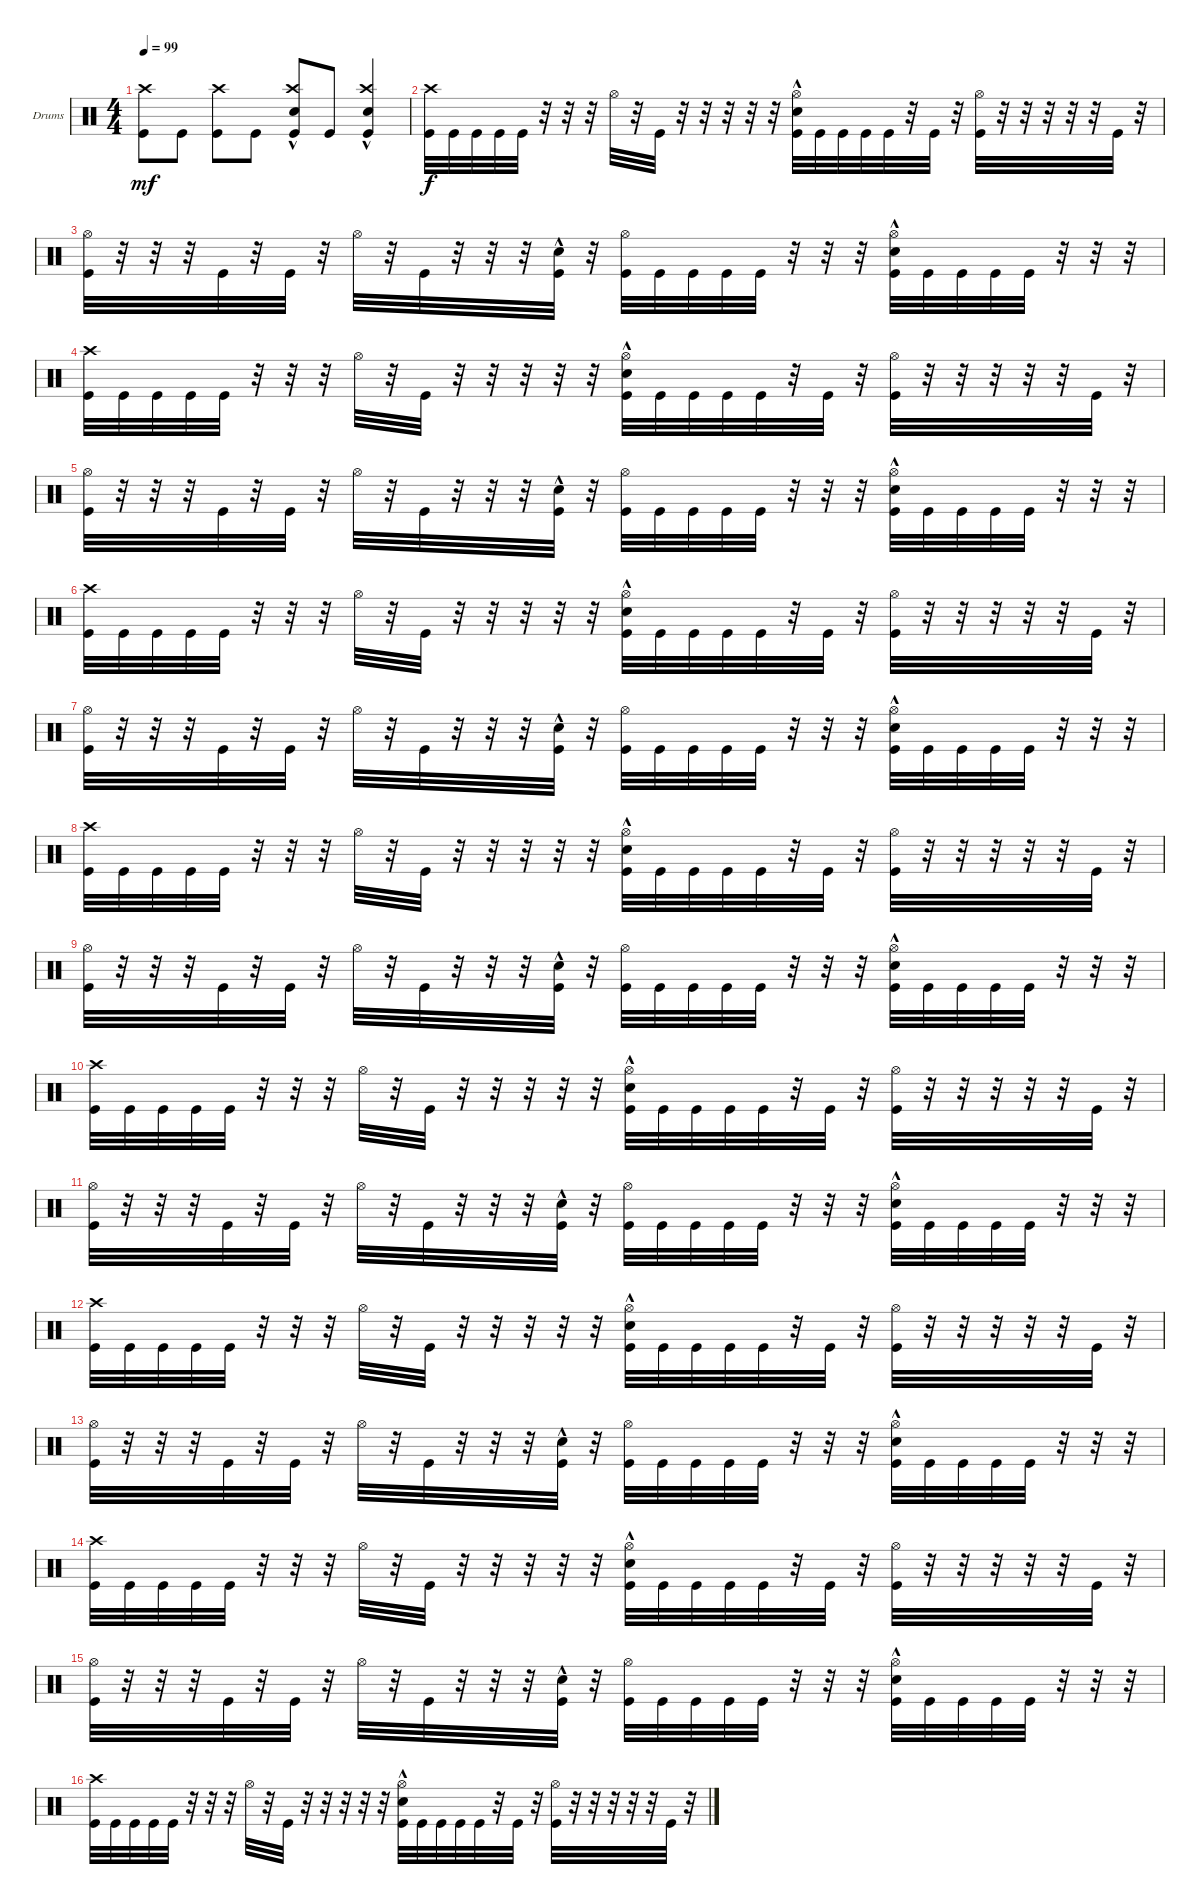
\defaultSystemsLayout 4
\bracketExtendMode groupsimilarinstruments
\firstSystemTrackNameOrientation horizontal
\otherSystemsTrackNameOrientation horizontal
\track ("Drumkit" "Drums") {instrument percussion}
\staff {score}
\articulation defaults
\ts (4 4)
\tempo 99
\clef neutral
\ks c
("Kick (hit)" "Crash high (hit)").8{dy mf} "Kick (hit)".8 ("Kick (hit)" "Crash high (hit)").8 "Kick (hit)".8 ("Kick (hit)" "Crash high (hit)" "Snare (hit) 2"{hac}).8 "Kick (hit)".8 ("Kick (hit)" "Crash high (hit)" "Snare (hit) 2"{hac}).4 |
("Kick (hit)" "Crash high (hit)").32{dy f} "Kick (hit)".32 "Kick (hit)".32 "Kick (hit)".32 "Kick (hit)".32 r.32 r.32 r.32 "Hi-Hat (open)".32 r.32 "Kick (hit)".32 r.32 r.32 r.32 r.32 r.32 ("Kick (hit)" "Hi-Hat (open)" "Snare (hit) 2"{hac}).32 "Kick (hit)".32 "Kick (hit)".32 "Kick (hit)".32 "Kick (hit)".32 r.32 "Kick (hit)".32 r.32 ("Kick (hit)" "Hi-Hat (open)").32 r.32 r.32 r.32 r.32 r.32 "Kick (hit)".32 r.32 |
("Kick (hit)" "Hi-Hat (open)").32 r.32 r.32 r.32 "Kick (hit)".32 r.32 "Kick (hit)".32 r.32 "Hi-Hat (open)".32 r.32 "Kick (hit)".32 r.32 r.32 r.32 ("Kick (hit)" "Snare (hit) 2"{hac}).32 r.32 ("Kick (hit)" "Hi-Hat (open)").32 "Kick (hit)".32 "Kick (hit)".32 "Kick (hit)".32 "Kick (hit)".32 r.32 r.32 r.32 ("Kick (hit)" "Hi-Hat (open)" "Snare (hit) 2"{hac}).32 "Kick (hit)".32 "Kick (hit)".32 "Kick (hit)".32 "Kick (hit)".32 r.32 r.32 r.32 |
("Kick (hit)" "Crash high (hit)").32 "Kick (hit)".32 "Kick (hit)".32 "Kick (hit)".32 "Kick (hit)".32 r.32 r.32 r.32 "Hi-Hat (open)".32 r.32 "Kick (hit)".32 r.32 r.32 r.32 r.32 r.32 ("Kick (hit)" "Hi-Hat (open)" "Snare (hit) 2"{hac}).32 "Kick (hit)".32 "Kick (hit)".32 "Kick (hit)".32 "Kick (hit)".32 r.32 "Kick (hit)".32 r.32 ("Kick (hit)" "Hi-Hat (open)").32 r.32 r.32 r.32 r.32 r.32 "Kick (hit)".32 r.32 |
("Kick (hit)" "Hi-Hat (open)").32 r.32 r.32 r.32 "Kick (hit)".32 r.32 "Kick (hit)".32 r.32 "Hi-Hat (open)".32 r.32 "Kick (hit)".32 r.32 r.32 r.32 ("Kick (hit)" "Snare (hit) 2"{hac}).32 r.32 ("Kick (hit)" "Hi-Hat (open)").32 "Kick (hit)".32 "Kick (hit)".32 "Kick (hit)".32 "Kick (hit)".32 r.32 r.32 r.32 ("Kick (hit)" "Hi-Hat (open)" "Snare (hit) 2"{hac}).32 "Kick (hit)".32 "Kick (hit)".32 "Kick (hit)".32 "Kick (hit)".32 r.32 r.32 r.32 |
("Kick (hit)" "Crash high (hit)").32 "Kick (hit)".32 "Kick (hit)".32 "Kick (hit)".32 "Kick (hit)".32 r.32 r.32 r.32 "Hi-Hat (open)".32 r.32 "Kick (hit)".32 r.32 r.32 r.32 r.32 r.32 ("Kick (hit)" "Hi-Hat (open)" "Snare (hit) 2"{hac}).32 "Kick (hit)".32 "Kick (hit)".32 "Kick (hit)".32 "Kick (hit)".32 r.32 "Kick (hit)".32 r.32 ("Kick (hit)" "Hi-Hat (open)").32 r.32 r.32 r.32 r.32 r.32 "Kick (hit)".32 r.32 |
("Kick (hit)" "Hi-Hat (open)").32 r.32 r.32 r.32 "Kick (hit)".32 r.32 "Kick (hit)".32 r.32 "Hi-Hat (open)".32 r.32 "Kick (hit)".32 r.32 r.32 r.32 ("Kick (hit)" "Snare (hit) 2"{hac}).32 r.32 ("Kick (hit)" "Hi-Hat (open)").32 "Kick (hit)".32 "Kick (hit)".32 "Kick (hit)".32 "Kick (hit)".32 r.32 r.32 r.32 ("Kick (hit)" "Hi-Hat (open)" "Snare (hit) 2"{hac}).32 "Kick (hit)".32 "Kick (hit)".32 "Kick (hit)".32 "Kick (hit)".32 r.32 r.32 r.32 |
("Kick (hit)" "Crash high (hit)").32 "Kick (hit)".32 "Kick (hit)".32 "Kick (hit)".32 "Kick (hit)".32 r.32 r.32 r.32 "Hi-Hat (open)".32 r.32 "Kick (hit)".32 r.32 r.32 r.32 r.32 r.32 ("Kick (hit)" "Hi-Hat (open)" "Snare (hit) 2"{hac}).32 "Kick (hit)".32 "Kick (hit)".32 "Kick (hit)".32 "Kick (hit)".32 r.32 "Kick (hit)".32 r.32 ("Kick (hit)" "Hi-Hat (open)").32 r.32 r.32 r.32 r.32 r.32 "Kick (hit)".32 r.32 |
("Kick (hit)" "Hi-Hat (open)").32 r.32 r.32 r.32 "Kick (hit)".32 r.32 "Kick (hit)".32 r.32 "Hi-Hat (open)".32 r.32 "Kick (hit)".32 r.32 r.32 r.32 ("Kick (hit)" "Snare (hit) 2"{hac}).32 r.32 ("Kick (hit)" "Hi-Hat (open)").32 "Kick (hit)".32 "Kick (hit)".32 "Kick (hit)".32 "Kick (hit)".32 r.32 r.32 r.32 ("Kick (hit)" "Hi-Hat (open)" "Snare (hit) 2"{hac}).32 "Kick (hit)".32 "Kick (hit)".32 "Kick (hit)".32 "Kick (hit)".32 r.32 r.32 r.32 |
("Kick (hit)" "Crash high (hit)").32 "Kick (hit)".32 "Kick (hit)".32 "Kick (hit)".32 "Kick (hit)".32 r.32 r.32 r.32 "Hi-Hat (open)".32 r.32 "Kick (hit)".32 r.32 r.32 r.32 r.32 r.32 ("Kick (hit)" "Hi-Hat (open)" "Snare (hit) 2"{hac}).32 "Kick (hit)".32 "Kick (hit)".32 "Kick (hit)".32 "Kick (hit)".32 r.32 "Kick (hit)".32 r.32 ("Kick (hit)" "Hi-Hat (open)").32 r.32 r.32 r.32 r.32 r.32 "Kick (hit)".32 r.32 |
("Kick (hit)" "Hi-Hat (open)").32 r.32 r.32 r.32 "Kick (hit)".32 r.32 "Kick (hit)".32 r.32 "Hi-Hat (open)".32 r.32 "Kick (hit)".32 r.32 r.32 r.32 ("Kick (hit)" "Snare (hit) 2"{hac}).32 r.32 ("Kick (hit)" "Hi-Hat (open)").32 "Kick (hit)".32 "Kick (hit)".32 "Kick (hit)".32 "Kick (hit)".32 r.32 r.32 r.32 ("Kick (hit)" "Hi-Hat (open)" "Snare (hit) 2"{hac}).32 "Kick (hit)".32 "Kick (hit)".32 "Kick (hit)".32 "Kick (hit)".32 r.32 r.32 r.32 |
("Kick (hit)" "Crash high (hit)").32 "Kick (hit)".32 "Kick (hit)".32 "Kick (hit)".32 "Kick (hit)".32 r.32 r.32 r.32 "Hi-Hat (open)".32 r.32 "Kick (hit)".32 r.32 r.32 r.32 r.32 r.32 ("Kick (hit)" "Hi-Hat (open)" "Snare (hit) 2"{hac}).32 "Kick (hit)".32 "Kick (hit)".32 "Kick (hit)".32 "Kick (hit)".32 r.32 "Kick (hit)".32 r.32 ("Kick (hit)" "Hi-Hat (open)").32 r.32 r.32 r.32 r.32 r.32 "Kick (hit)".32 r.32 |
("Kick (hit)" "Hi-Hat (open)").32 r.32 r.32 r.32 "Kick (hit)".32 r.32 "Kick (hit)".32 r.32 "Hi-Hat (open)".32 r.32 "Kick (hit)".32 r.32 r.32 r.32 ("Kick (hit)" "Snare (hit) 2"{hac}).32 r.32 ("Kick (hit)" "Hi-Hat (open)").32 "Kick (hit)".32 "Kick (hit)".32 "Kick (hit)".32 "Kick (hit)".32 r.32 r.32 r.32 ("Kick (hit)" "Hi-Hat (open)" "Snare (hit) 2"{hac}).32 "Kick (hit)".32 "Kick (hit)".32 "Kick (hit)".32 "Kick (hit)".32 r.32 r.32 r.32 |
("Kick (hit)" "Crash high (hit)").32 "Kick (hit)".32 "Kick (hit)".32 "Kick (hit)".32 "Kick (hit)".32 r.32 r.32 r.32 "Hi-Hat (open)".32 r.32 "Kick (hit)".32 r.32 r.32 r.32 r.32 r.32 ("Kick (hit)" "Hi-Hat (open)" "Snare (hit) 2"{hac}).32 "Kick (hit)".32 "Kick (hit)".32 "Kick (hit)".32 "Kick (hit)".32 r.32 "Kick (hit)".32 r.32 ("Kick (hit)" "Hi-Hat (open)").32 r.32 r.32 r.32 r.32 r.32 "Kick (hit)".32 r.32 |
("Kick (hit)" "Hi-Hat (open)").32 r.32 r.32 r.32 "Kick (hit)".32 r.32 "Kick (hit)".32 r.32 "Hi-Hat (open)".32 r.32 "Kick (hit)".32 r.32 r.32 r.32 ("Kick (hit)" "Snare (hit) 2"{hac}).32 r.32 ("Kick (hit)" "Hi-Hat (open)").32 "Kick (hit)".32 "Kick (hit)".32 "Kick (hit)".32 "Kick (hit)".32 r.32 r.32 r.32 ("Kick (hit)" "Hi-Hat (open)" "Snare (hit) 2"{hac}).32 "Kick (hit)".32 "Kick (hit)".32 "Kick (hit)".32 "Kick (hit)".32 r.32 r.32 r.32 |
("Kick (hit)" "Crash high (hit)").32 "Kick (hit)".32 "Kick (hit)".32 "Kick (hit)".32 "Kick (hit)".32 r.32 r.32 r.32 "Hi-Hat (open)".32 r.32 "Kick (hit)".32 r.32 r.32 r.32 r.32 r.32 ("Kick (hit)" "Hi-Hat (open)" "Snare (hit) 2"{hac}).32 "Kick (hit)".32 "Kick (hit)".32 "Kick (hit)".32 "Kick (hit)".32 r.32 "Kick (hit)".32 r.32 ("Kick (hit)" "Hi-Hat (open)").32 r.32 r.32 r.32 r.32 r.32 "Kick (hit)".32 r.32
